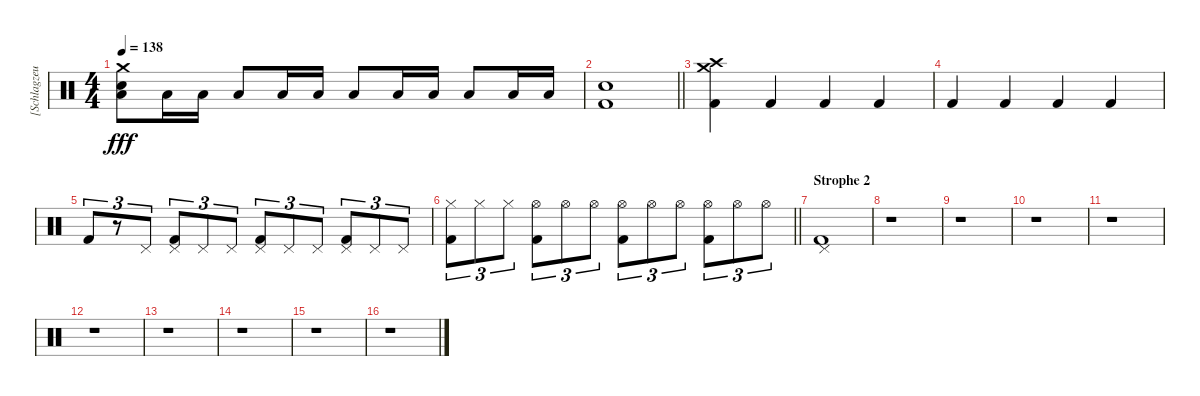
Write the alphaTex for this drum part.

\track ("[Schlagzeug]" "[Schlagzeu") {instrument percussion}
\staff {score}
\articulation defaults
\ts (4 4)
\tempo 138
\clef neutral
\ks c
("Low Floor Tom (hit)" "Electric Snare (hit)" "Crash medium (hit)").8{dy fff} "Low Floor Tom (hit)".16 "Low Floor Tom (hit)".16 "Low Floor Tom (hit)".8 "Low Floor Tom (hit)".16 "Low Floor Tom (hit)".16 "Low Tom (hit)".8 "Low Floor Tom (hit)".16 "Low Floor Tom (hit)".16 "Low Tom (hit)".8 "Low Floor Tom (hit)".16 "Low Floor Tom (hit)".16 |
\barLineRight lightlight
("Electric Snare (hit)" "Kick (hit) 2").1 |
("Crash high (hit)" "Crash medium (hit)" "Kick (hit) 2").4 "Kick (hit) 2".4 "Kick (hit) 2".4 "Kick (hit) 2".4 |
"Kick (hit) 2".4 "Kick (hit) 2".4 "Kick (hit) 2".4 "Kick (hit) 2".4 |
"Kick (hit) 2".8{tu (3 2)} r.8{tu (3 2)} "Pedal Hi-Hat (hit)".8{tu (3 2)} ("Pedal Hi-Hat (hit)" "Kick (hit) 2").8{tu (3 2)} "Pedal Hi-Hat (hit)".8{tu (3 2)} "Pedal Hi-Hat (hit)".8{tu (3 2)} ("Pedal Hi-Hat (hit)" "Kick (hit) 2").8{tu (3 2)} "Pedal Hi-Hat (hit)".8{tu (3 2)} "Pedal Hi-Hat (hit)".8{tu (3 2)} ("Pedal Hi-Hat (hit)" "Kick (hit) 2").8{tu (3 2)} "Pedal Hi-Hat (hit)".8{tu (3 2)} "Pedal Hi-Hat (hit)".8{tu (3 2)} |
\barLineRight lightlight
("Hi-Hat (closed)" "Kick (hit) 2").8{tu (3 2)} "Hi-Hat (closed)".8{tu (3 2)} "Hi-Hat (closed)".8{tu (3 2)} ("Hi-Hat (open)" "Kick (hit) 2").8{tu (3 2)} "Hi-Hat (open)".8{tu (3 2)} "Hi-Hat (open)".8{tu (3 2)} ("Hi-Hat (open)" "Kick (hit) 2").8{tu (3 2)} "Hi-Hat (open)".8{tu (3 2)} "Hi-Hat (open)".8{tu (3 2)} ("Hi-Hat (open)" "Kick (hit) 2").8{tu (3 2)} "Hi-Hat (open)".8{tu (3 2)} "Hi-Hat (open)".8{tu (3 2)} |
\section ("" "Strophe 2")
("Pedal Hi-Hat (hit)" "Kick (hit) 2").1 |
r.1 |
r.1 |
r.1 |
r.1 |
r.1 |
r.1 |
r.1 |
r.1 |
r.1
